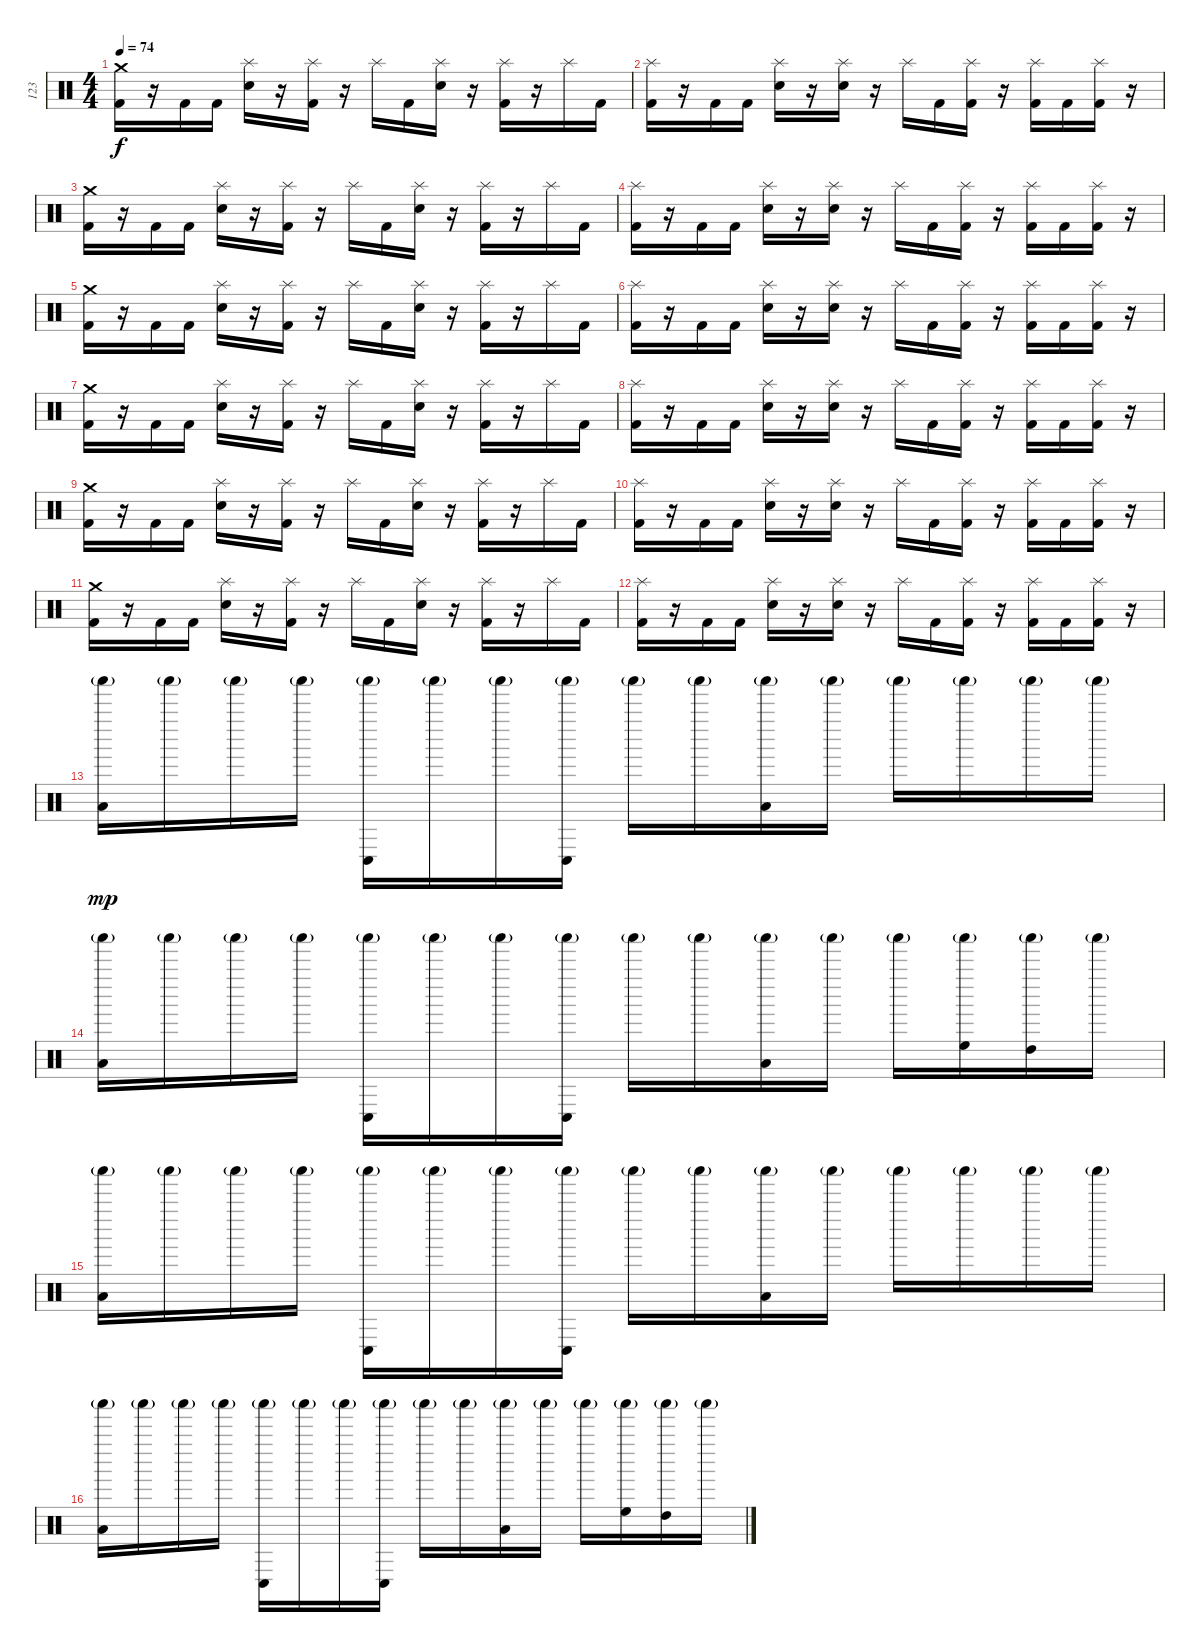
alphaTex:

\track ("123" "123") {instrument percussion}
\staff {score}
\articulation defaults
\ts (4 4)
\tempo 74
\clef neutral
\ks c
("Crash medium (hit)" "Kick (hit) 2").16{dy f} r.16 "Kick (hit) 2".16 "Kick (hit) 2".16 ("Splash (hit)" "Electric Snare (hit)").16 r.16 ("Splash (hit)" "Kick (hit) 2").16 r.16 "Splash (hit)".16 "Kick (hit) 2".16 ("Splash (hit)" "Electric Snare (hit)").16 r.16 ("Splash (hit)" "Kick (hit) 2").16 r.16 "Splash (hit)".16 "Kick (hit) 2".16 |
("Splash (hit)" "Kick (hit) 2").16 r.16 "Kick (hit) 2".16 "Kick (hit) 2".16 ("Splash (hit)" "Electric Snare (hit)").16 r.16 ("Splash (hit)" "Electric Snare (hit)").16 r.16 "Splash (hit)".16 "Kick (hit) 2".16 ("Splash (hit)" "Kick (hit) 2").16 r.16 ("Splash (hit)" "Kick (hit) 2").16 "Kick (hit) 2".16 ("Splash (hit)" "Kick (hit) 2").16 r.16 |
("Crash medium (hit)" "Kick (hit) 2").16 r.16 "Kick (hit) 2".16 "Kick (hit) 2".16 ("Splash (hit)" "Electric Snare (hit)").16 r.16 ("Splash (hit)" "Kick (hit) 2").16 r.16 "Splash (hit)".16 "Kick (hit) 2".16 ("Splash (hit)" "Electric Snare (hit)").16 r.16 ("Splash (hit)" "Kick (hit) 2").16 r.16 "Splash (hit)".16 "Kick (hit) 2".16 |
("Splash (hit)" "Kick (hit) 2").16 r.16 "Kick (hit) 2".16 "Kick (hit) 2".16 ("Splash (hit)" "Electric Snare (hit)").16 r.16 ("Splash (hit)" "Electric Snare (hit)").16 r.16 "Splash (hit)".16 "Kick (hit) 2".16 ("Splash (hit)" "Kick (hit) 2").16 r.16 ("Splash (hit)" "Kick (hit) 2").16 "Kick (hit) 2".16 ("Splash (hit)" "Kick (hit) 2").16 r.16 |
("Crash medium (hit)" "Kick (hit) 2").16 r.16 "Kick (hit) 2".16 "Kick (hit) 2".16 ("Splash (hit)" "Electric Snare (hit)").16 r.16 ("Splash (hit)" "Kick (hit) 2").16 r.16 "Splash (hit)".16 "Kick (hit) 2".16 ("Splash (hit)" "Electric Snare (hit)").16 r.16 ("Splash (hit)" "Kick (hit) 2").16 r.16 "Splash (hit)".16 "Kick (hit) 2".16 |
("Splash (hit)" "Kick (hit) 2").16 r.16 "Kick (hit) 2".16 "Kick (hit) 2".16 ("Splash (hit)" "Electric Snare (hit)").16 r.16 ("Splash (hit)" "Electric Snare (hit)").16 r.16 "Splash (hit)".16 "Kick (hit) 2".16 ("Splash (hit)" "Kick (hit) 2").16 r.16 ("Splash (hit)" "Kick (hit) 2").16 "Kick (hit) 2".16 ("Splash (hit)" "Kick (hit) 2").16 r.16 |
("Crash medium (hit)" "Kick (hit) 2").16 r.16 "Kick (hit) 2".16 "Kick (hit) 2".16 ("Splash (hit)" "Electric Snare (hit)").16 r.16 ("Splash (hit)" "Kick (hit) 2").16 r.16 "Splash (hit)".16 "Kick (hit) 2".16 ("Splash (hit)" "Electric Snare (hit)").16 r.16 ("Splash (hit)" "Kick (hit) 2").16 r.16 "Splash (hit)".16 "Kick (hit) 2".16 |
("Splash (hit)" "Kick (hit) 2").16 r.16 "Kick (hit) 2".16 "Kick (hit) 2".16 ("Splash (hit)" "Electric Snare (hit)").16 r.16 ("Splash (hit)" "Electric Snare (hit)").16 r.16 "Splash (hit)".16 "Kick (hit) 2".16 ("Splash (hit)" "Kick (hit) 2").16 r.16 ("Splash (hit)" "Kick (hit) 2").16 "Kick (hit) 2".16 ("Splash (hit)" "Kick (hit) 2").16 r.16 |
("Crash medium (hit)" "Kick (hit) 2").16 r.16 "Kick (hit) 2".16 "Kick (hit) 2".16 ("Splash (hit)" "Electric Snare (hit)").16 r.16 ("Splash (hit)" "Kick (hit) 2").16 r.16 "Splash (hit)".16 "Kick (hit) 2".16 ("Splash (hit)" "Electric Snare (hit)").16 r.16 ("Splash (hit)" "Kick (hit) 2").16 r.16 "Splash (hit)".16 "Kick (hit) 2".16 |
("Splash (hit)" "Kick (hit) 2").16 r.16 "Kick (hit) 2".16 "Kick (hit) 2".16 ("Splash (hit)" "Electric Snare (hit)").16 r.16 ("Splash (hit)" "Electric Snare (hit)").16 r.16 "Splash (hit)".16 "Kick (hit) 2".16 ("Splash (hit)" "Kick (hit) 2").16 r.16 ("Splash (hit)" "Kick (hit) 2").16 "Kick (hit) 2".16 ("Splash (hit)" "Kick (hit) 2").16 r.16 |
("Crash medium (hit)" "Kick (hit) 2").16 r.16 "Kick (hit) 2".16 "Kick (hit) 2".16 ("Splash (hit)" "Electric Snare (hit)").16 r.16 ("Splash (hit)" "Kick (hit) 2").16 r.16 "Splash (hit)".16 "Kick (hit) 2".16 ("Splash (hit)" "Electric Snare (hit)").16 r.16 ("Splash (hit)" "Kick (hit) 2").16 r.16 "Splash (hit)".16 "Kick (hit) 2".16 |
("Splash (hit)" "Kick (hit) 2").16 r.16 "Kick (hit) 2".16 "Kick (hit) 2".16 ("Splash (hit)" "Electric Snare (hit)").16 r.16 ("Splash (hit)" "Electric Snare (hit)").16 r.16 "Splash (hit)".16 "Kick (hit) 2".16 ("Splash (hit)" "Kick (hit) 2").16 r.16 ("Splash (hit)" "Kick (hit) 2").16 "Kick (hit) 2".16 ("Splash (hit)" "Kick (hit) 2").16 r.16 |
("Shaker (hit)"{g} "Low Floor Tom (hit)").16{dy mp} "Shaker (hit)"{g}.16 "Shaker (hit)"{g}.16 "Shaker (hit)"{g}.16 ("Shaker (hit)"{g} "Conga low (hit)").16 "Shaker (hit)"{g}.16 "Shaker (hit)"{g}.16 ("Shaker (hit)"{g} "Conga low (hit)").16 "Shaker (hit)"{g}.16 "Shaker (hit)"{g}.16 ("Shaker (hit)"{g} "Low Floor Tom (hit)").16 "Shaker (hit)"{g}.16 "Shaker (hit)"{g}.16 "Shaker (hit)"{g}.16 "Shaker (hit)"{g}.16 "Shaker (hit)"{g}.16 |
("Shaker (hit)"{g} "Low Floor Tom (hit)").16 "Shaker (hit)"{g}.16 "Shaker (hit)"{g}.16 "Shaker (hit)"{g}.16 ("Shaker (hit)"{g} "Conga low (hit)").16 "Shaker (hit)"{g}.16 "Shaker (hit)"{g}.16 ("Shaker (hit)"{g} "Conga low (hit)").16 "Shaker (hit)"{g}.16 "Shaker (hit)"{g}.16 ("Shaker (hit)"{g} "Low Floor Tom (hit)").16 "Shaker (hit)"{g}.16 "Shaker (hit)"{g}.16 ("Shaker (hit)"{g} "High Floor Tom (hit)").16 ("Shaker (hit)"{g} "High Tom (hit)").16 "Shaker (hit)"{g}.16 |
("Shaker (hit)"{g} "Low Floor Tom (hit)").16 "Shaker (hit)"{g}.16 "Shaker (hit)"{g}.16 "Shaker (hit)"{g}.16 ("Shaker (hit)"{g} "Conga low (hit)").16 "Shaker (hit)"{g}.16 "Shaker (hit)"{g}.16 ("Shaker (hit)"{g} "Conga low (hit)").16 "Shaker (hit)"{g}.16 "Shaker (hit)"{g}.16 ("Shaker (hit)"{g} "Low Floor Tom (hit)").16 "Shaker (hit)"{g}.16 "Shaker (hit)"{g}.16 "Shaker (hit)"{g}.16 "Shaker (hit)"{g}.16 "Shaker (hit)"{g}.16 |
("Shaker (hit)"{g} "Low Floor Tom (hit)").16 "Shaker (hit)"{g}.16 "Shaker (hit)"{g}.16 "Shaker (hit)"{g}.16 ("Shaker (hit)"{g} "Conga low (hit)").16 "Shaker (hit)"{g}.16 "Shaker (hit)"{g}.16 ("Shaker (hit)"{g} "Conga low (hit)").16 "Shaker (hit)"{g}.16 "Shaker (hit)"{g}.16 ("Shaker (hit)"{g} "Low Floor Tom (hit)").16 "Shaker (hit)"{g}.16 "Shaker (hit)"{g}.16 ("Shaker (hit)"{g} "High Floor Tom (hit)").16 ("Shaker (hit)"{g} "High Tom (hit)").16 "Shaker (hit)"{g}.16
